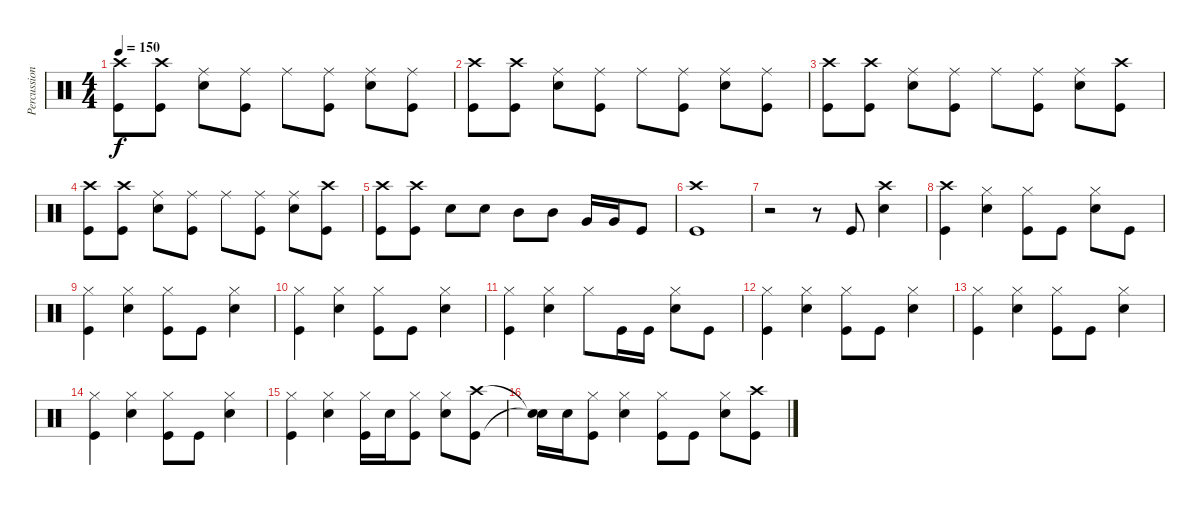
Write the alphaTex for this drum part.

\track ("Percussion" "Percussion") {instrument percussion}
\staff {score}
\articulation defaults
\ts (4 4)
\tempo 150
\clef neutral
\ks c
("Crash high (hit)" "Kick (hit)").8{dy f} ("Crash high (hit)" "Kick (hit)").8 ("Ride (middle)" "Electric Snare (hit)").8 ("Ride (middle)" "Kick (hit)").8 "Ride (middle)".8 ("Ride (middle)" "Kick (hit)").8 ("Ride (middle)" "Electric Snare (hit)").8 ("Ride (middle)" "Kick (hit)").8 |
("Crash high (hit)" "Kick (hit)").8 ("Crash high (hit)" "Kick (hit)").8 ("Ride (middle)" "Electric Snare (hit)").8 ("Ride (middle)" "Kick (hit)").8 "Ride (middle)".8 ("Ride (middle)" "Kick (hit)").8 ("Ride (middle)" "Electric Snare (hit)").8 ("Ride (middle)" "Kick (hit)").8 |
("Crash high (hit)" "Kick (hit)").8 ("Crash high (hit)" "Kick (hit)").8 ("Ride (middle)" "Electric Snare (hit)").8 ("Ride (middle)" "Kick (hit)").8 "Ride (middle)".8 ("Ride (middle)" "Kick (hit)").8 ("Ride (middle)" "Electric Snare (hit)").8 ("Crash high (hit)" "Kick (hit)").8 |
("Crash high (hit)" "Kick (hit)").8 ("Crash high (hit)" "Kick (hit)").8 ("Ride (middle)" "Electric Snare (hit)").8 ("Ride (middle)" "Kick (hit)").8 "Ride (middle)".8 ("Ride (middle)" "Kick (hit)").8 ("Ride (middle)" "Electric Snare (hit)").8 ("Crash high (hit)" "Kick (hit)").8 |
("Crash high (hit)" "Kick (hit)").8 ("Crash high (hit)" "Kick (hit)").8 "Electric Snare (hit)".8 "Electric Snare (hit)".8 "Mid Tom (hit)".8 "Mid Tom (hit)".8 "Very Low Tom (hit)".16 "Very Low Tom (hit)".16 "Kick (hit)".8 |
("Crash high (hit)" "Kick (hit)").1 |
r.2 r.8 "Kick (hit)".8 ("Crash high (hit)" "Electric Snare (hit)").4 |
("Crash high (hit)" "Kick (hit)").4 ("Hi-Hat (closed)" "Electric Snare (hit)").4 ("Hi-Hat (closed)" "Kick (hit)").8 "Kick (hit)".8 ("Electric Snare (hit)" "Hi-Hat (closed)").8 "Kick (hit)".8 |
("Hi-Hat (closed)" "Kick (hit)").4 ("Hi-Hat (closed)" "Electric Snare (hit)").4 ("Hi-Hat (closed)" "Kick (hit)").8 "Kick (hit)".8 ("Hi-Hat (closed)" "Electric Snare (hit)").4 |
("Hi-Hat (closed)" "Kick (hit)").4 ("Hi-Hat (closed)" "Electric Snare (hit)").4 ("Hi-Hat (closed)" "Kick (hit)").8 "Kick (hit)".8 ("Hi-Hat (closed)" "Electric Snare (hit)").4 |
("Hi-Hat (closed)" "Kick (hit)").4 ("Hi-Hat (closed)" "Electric Snare (hit)").4 "Hi-Hat (closed)".8 "Kick (hit)".16 "Kick (hit)".16 ("Hi-Hat (closed)" "Electric Snare (hit)").8 "Kick (hit)".8 |
("Hi-Hat (closed)" "Kick (hit)").4 ("Hi-Hat (closed)" "Electric Snare (hit)").4 ("Hi-Hat (closed)" "Kick (hit)").8 "Kick (hit)".8 ("Hi-Hat (closed)" "Electric Snare (hit)").4 |
("Hi-Hat (closed)" "Kick (hit)").4 ("Hi-Hat (closed)" "Electric Snare (hit)").4 ("Hi-Hat (closed)" "Kick (hit)").8 "Kick (hit)".8 ("Hi-Hat (closed)" "Electric Snare (hit)").4 |
("Hi-Hat (closed)" "Kick (hit)").4 ("Hi-Hat (closed)" "Electric Snare (hit)").4 ("Hi-Hat (closed)" "Kick (hit)").8 "Kick (hit)".8 ("Hi-Hat (closed)" "Electric Snare (hit)").4 |
("Hi-Hat (closed)" "Kick (hit)").4 ("Hi-Hat (closed)" "Electric Snare (hit)").4 ("Hi-Hat (closed)" "Kick (hit)").16 "Electric Snare (hit)".16 ("Hi-Hat (closed)" "Kick (hit)").8 ("Hi-Hat (closed)" "Electric Snare (hit)").8 ("Crash high (hit)" "Kick (hit)").8 |
("Snare (hit)"{t} "Snare (hit)"{t}).16 "Electric Snare (hit)".16 ("Hi-Hat (closed)" "Kick (hit)").8 ("Hi-Hat (closed)" "Electric Snare (hit)").4 ("Hi-Hat (closed)" "Kick (hit)").8 "Kick (hit)".8 ("Hi-Hat (closed)" "Electric Snare (hit)").8 ("Crash high (hit)" "Kick (hit)").8
